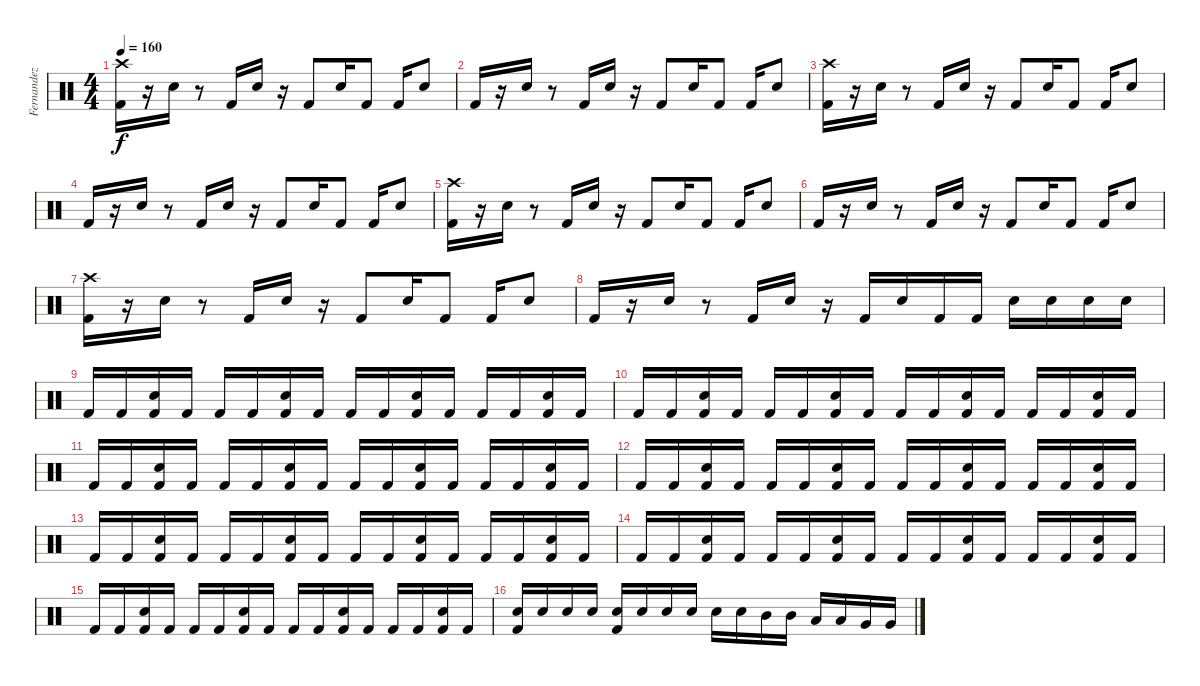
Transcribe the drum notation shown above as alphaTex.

\track ("Fernandez" "Fernandez") {instrument percussion}
\staff {score}
\articulation defaults
\ts (4 4)
\tempo 160
\clef neutral
\ks c
("Kick (hit) 2" "Crash high (hit)").16{dy f} r.16 "Snare (hit) 2".16 r.8 "Kick (hit) 2".16 "Snare (hit) 2".16 r.16 "Kick (hit) 2".8 "Snare (hit) 2".16 "Kick (hit) 2".8 "Kick (hit) 2".16 "Snare (hit) 2".8 |
"Kick (hit) 2".16 r.16 "Snare (hit) 2".16 r.8 "Kick (hit) 2".16 "Snare (hit) 2".16 r.16 "Kick (hit) 2".8 "Snare (hit) 2".16 "Kick (hit) 2".8 "Kick (hit) 2".16 "Snare (hit) 2".8 |
("Kick (hit) 2" "Crash high (hit)").16 r.16 "Snare (hit) 2".16 r.8 "Kick (hit) 2".16 "Snare (hit) 2".16 r.16 "Kick (hit) 2".8 "Snare (hit) 2".16 "Kick (hit) 2".8 "Kick (hit) 2".16 "Snare (hit) 2".8 |
"Kick (hit) 2".16 r.16 "Snare (hit) 2".16 r.8 "Kick (hit) 2".16 "Snare (hit) 2".16 r.16 "Kick (hit) 2".8 "Snare (hit) 2".16 "Kick (hit) 2".8 "Kick (hit) 2".16 "Snare (hit) 2".8 |
("Kick (hit) 2" "Crash high (hit)").16 r.16 "Snare (hit) 2".16 r.8 "Kick (hit) 2".16 "Snare (hit) 2".16 r.16 "Kick (hit) 2".8 "Snare (hit) 2".16 "Kick (hit) 2".8 "Kick (hit) 2".16 "Snare (hit) 2".8 |
"Kick (hit) 2".16 r.16 "Snare (hit) 2".16 r.8 "Kick (hit) 2".16 "Snare (hit) 2".16 r.16 "Kick (hit) 2".8 "Snare (hit) 2".16 "Kick (hit) 2".8 "Kick (hit) 2".16 "Snare (hit) 2".8 |
("Kick (hit) 2" "Crash high (hit)").16 r.16 "Snare (hit) 2".16 r.8 "Kick (hit) 2".16 "Snare (hit) 2".16 r.16 "Kick (hit) 2".8 "Snare (hit) 2".16 "Kick (hit) 2".8 "Kick (hit) 2".16 "Snare (hit) 2".8 |
"Kick (hit) 2".16 r.16 "Snare (hit) 2".16 r.8 "Kick (hit) 2".16 "Snare (hit) 2".16 r.16 "Kick (hit) 2".16 "Snare (hit) 2".16 "Kick (hit) 2".16 "Kick (hit) 2".16 "Snare (hit) 2".16 "Snare (hit) 2".16 "Snare (hit) 2".16 "Snare (hit) 2".16 |
"Kick (hit) 2".16 "Kick (hit) 2".16 ("Snare (hit) 2" "Kick (hit) 2").16 "Kick (hit) 2".16 "Kick (hit) 2".16 "Kick (hit) 2".16 ("Snare (hit) 2" "Kick (hit) 2").16 "Kick (hit) 2".16 "Kick (hit) 2".16 "Kick (hit) 2".16 ("Snare (hit) 2" "Kick (hit) 2").16 "Kick (hit) 2".16 "Kick (hit) 2".16 "Kick (hit) 2".16 ("Snare (hit) 2" "Kick (hit) 2").16 "Kick (hit) 2".16 |
"Kick (hit) 2".16 "Kick (hit) 2".16 ("Snare (hit) 2" "Kick (hit) 2").16 "Kick (hit) 2".16 "Kick (hit) 2".16 "Kick (hit) 2".16 ("Snare (hit) 2" "Kick (hit) 2").16 "Kick (hit) 2".16 "Kick (hit) 2".16 "Kick (hit) 2".16 ("Snare (hit) 2" "Kick (hit) 2").16 "Kick (hit) 2".16 "Kick (hit) 2".16 "Kick (hit) 2".16 ("Snare (hit) 2" "Kick (hit) 2").16 "Kick (hit) 2".16 |
"Kick (hit) 2".16 "Kick (hit) 2".16 ("Snare (hit) 2" "Kick (hit) 2").16 "Kick (hit) 2".16 "Kick (hit) 2".16 "Kick (hit) 2".16 ("Snare (hit) 2" "Kick (hit) 2").16 "Kick (hit) 2".16 "Kick (hit) 2".16 "Kick (hit) 2".16 ("Snare (hit) 2" "Kick (hit) 2").16 "Kick (hit) 2".16 "Kick (hit) 2".16 "Kick (hit) 2".16 ("Snare (hit) 2" "Kick (hit) 2").16 "Kick (hit) 2".16 |
"Kick (hit) 2".16 "Kick (hit) 2".16 ("Snare (hit) 2" "Kick (hit) 2").16 "Kick (hit) 2".16 "Kick (hit) 2".16 "Kick (hit) 2".16 ("Snare (hit) 2" "Kick (hit) 2").16 "Kick (hit) 2".16 "Kick (hit) 2".16 "Kick (hit) 2".16 ("Snare (hit) 2" "Kick (hit) 2").16 "Kick (hit) 2".16 "Kick (hit) 2".16 "Kick (hit) 2".16 ("Snare (hit) 2" "Kick (hit) 2").16 "Kick (hit) 2".16 |
"Kick (hit) 2".16 "Kick (hit) 2".16 ("Snare (hit) 2" "Kick (hit) 2").16 "Kick (hit) 2".16 "Kick (hit) 2".16 "Kick (hit) 2".16 ("Snare (hit) 2" "Kick (hit) 2").16 "Kick (hit) 2".16 "Kick (hit) 2".16 "Kick (hit) 2".16 ("Snare (hit) 2" "Kick (hit) 2").16 "Kick (hit) 2".16 "Kick (hit) 2".16 "Kick (hit) 2".16 ("Snare (hit) 2" "Kick (hit) 2").16 "Kick (hit) 2".16 |
"Kick (hit) 2".16 "Kick (hit) 2".16 ("Snare (hit) 2" "Kick (hit) 2").16 "Kick (hit) 2".16 "Kick (hit) 2".16 "Kick (hit) 2".16 ("Snare (hit) 2" "Kick (hit) 2").16 "Kick (hit) 2".16 "Kick (hit) 2".16 "Kick (hit) 2".16 ("Snare (hit) 2" "Kick (hit) 2").16 "Kick (hit) 2".16 "Kick (hit) 2".16 "Kick (hit) 2".16 ("Snare (hit) 2" "Kick (hit) 2").16 "Kick (hit) 2".16 |
"Kick (hit) 2".16 "Kick (hit) 2".16 ("Snare (hit) 2" "Kick (hit) 2").16 "Kick (hit) 2".16 "Kick (hit) 2".16 "Kick (hit) 2".16 ("Snare (hit) 2" "Kick (hit) 2").16 "Kick (hit) 2".16 "Kick (hit) 2".16 "Kick (hit) 2".16 ("Snare (hit) 2" "Kick (hit) 2").16 "Kick (hit) 2".16 "Kick (hit) 2".16 "Kick (hit) 2".16 ("Snare (hit) 2" "Kick (hit) 2").16 "Kick (hit) 2".16 |
("Kick (hit) 2" "Snare (hit) 2").16 "Snare (hit) 2".16 "Snare (hit) 2".16 "Snare (hit) 2".16 ("Kick (hit) 2" "Snare (hit) 2").16 "Snare (hit) 2".16 "Snare (hit) 2".16 "Snare (hit) 2".16 "Snare (hit) 2".16 "Snare (hit) 2".16 "Mid Tom (hit)".16 "Mid Tom (hit)".16 "Low Tom (hit)".16 "Low Tom (hit)".16 "Very Low Tom (hit)".16 "Very Low Tom (hit)".16
